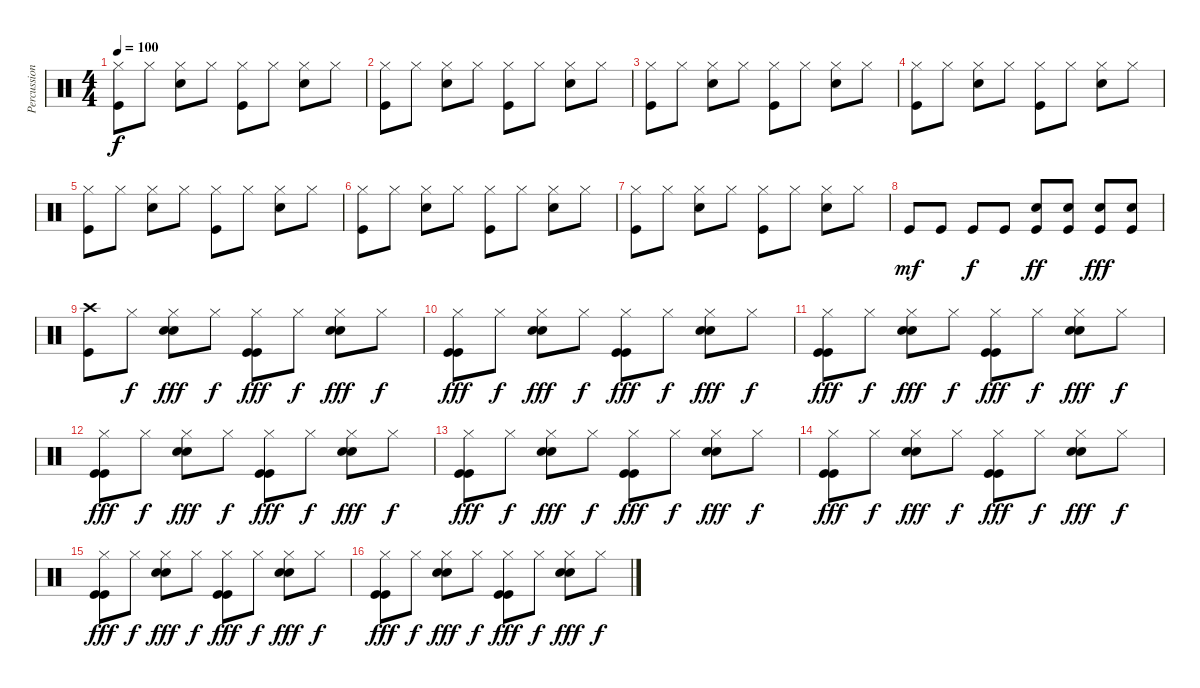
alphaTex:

\track ("Percussion" "Percussion") {instrument percussion}
\staff {score}
\articulation defaults
\ts (4 4)
\tempo 100
\clef neutral
\ks c
("Hi-Hat (closed)" "Kick (hit)").8{dy f} "Hi-Hat (closed)".8 ("Hi-Hat (closed)" "Snare (hit) 2").8 "Hi-Hat (closed)".8 ("Hi-Hat (closed)" "Kick (hit)").8 "Hi-Hat (closed)".8 ("Hi-Hat (closed)" "Snare (hit) 2").8 "Hi-Hat (closed)".8 |
("Hi-Hat (closed)" "Kick (hit)").8 "Hi-Hat (closed)".8 ("Hi-Hat (closed)" "Snare (hit) 2").8 "Hi-Hat (closed)".8 ("Hi-Hat (closed)" "Kick (hit)").8 "Hi-Hat (closed)".8 ("Hi-Hat (closed)" "Snare (hit) 2").8 "Hi-Hat (closed)".8 |
("Hi-Hat (closed)" "Kick (hit)").8 "Hi-Hat (closed)".8 ("Hi-Hat (closed)" "Snare (hit) 2").8 "Hi-Hat (closed)".8 ("Hi-Hat (closed)" "Kick (hit)").8 "Hi-Hat (closed)".8 ("Hi-Hat (closed)" "Snare (hit) 2").8 "Hi-Hat (closed)".8 |
("Hi-Hat (closed)" "Kick (hit)").8 "Hi-Hat (closed)".8 ("Hi-Hat (closed)" "Snare (hit) 2").8 "Hi-Hat (closed)".8 ("Hi-Hat (closed)" "Kick (hit)").8 "Hi-Hat (closed)".8 ("Hi-Hat (closed)" "Snare (hit) 2").8 "Hi-Hat (closed)".8 |
("Hi-Hat (closed)" "Kick (hit)").8 "Hi-Hat (closed)".8 ("Hi-Hat (closed)" "Snare (hit) 2").8 "Hi-Hat (closed)".8 ("Hi-Hat (closed)" "Kick (hit)").8 "Hi-Hat (closed)".8 ("Hi-Hat (closed)" "Snare (hit) 2").8 "Hi-Hat (closed)".8 |
("Hi-Hat (closed)" "Kick (hit)").8 "Hi-Hat (closed)".8 ("Hi-Hat (closed)" "Snare (hit) 2").8 "Hi-Hat (closed)".8 ("Hi-Hat (closed)" "Kick (hit)").8 "Hi-Hat (closed)".8 ("Hi-Hat (closed)" "Snare (hit) 2").8 "Hi-Hat (closed)".8 |
("Hi-Hat (closed)" "Kick (hit)").8 "Hi-Hat (closed)".8 ("Hi-Hat (closed)" "Snare (hit) 2").8 "Hi-Hat (closed)".8 ("Hi-Hat (closed)" "Kick (hit)").8 "Hi-Hat (closed)".8 ("Hi-Hat (closed)" "Snare (hit) 2").8 "Hi-Hat (closed)".8 |
"Kick (hit)".8{dy mf} "Kick (hit)".8 "Kick (hit)".8{dy f} "Kick (hit)".8 ("Snare (hit) 2" "Kick (hit)").8{dy ff} ("Snare (hit) 2" "Kick (hit)").8 ("Snare (hit) 2" "Kick (hit)").8{dy fff} ("Snare (hit) 2" "Kick (hit)").8 |
("Kick (hit)" "Crash high (hit)").8 "Hi-Hat (closed)".8{dy f} ("Hi-Hat (closed)" "Snare (hit) 2" "Snare (hit) 2").8{dy fff} "Hi-Hat (closed)".8{dy f} ("Hi-Hat (closed)" "Kick (hit)" "Kick (hit)").8{dy fff} "Hi-Hat (closed)".8{dy f} ("Hi-Hat (closed)" "Snare (hit) 2" "Snare (hit) 2").8{dy fff} "Hi-Hat (closed)".8{dy f} |
("Hi-Hat (closed)" "Kick (hit)" "Kick (hit)").8{dy fff} "Hi-Hat (closed)".8{dy f} ("Hi-Hat (closed)" "Snare (hit) 2" "Snare (hit) 2").8{dy fff} "Hi-Hat (closed)".8{dy f} ("Hi-Hat (closed)" "Kick (hit)" "Kick (hit)").8{dy fff} "Hi-Hat (closed)".8{dy f} ("Hi-Hat (closed)" "Snare (hit) 2" "Snare (hit) 2").8{dy fff} "Hi-Hat (closed)".8{dy f} |
("Hi-Hat (closed)" "Kick (hit)" "Kick (hit)").8{dy fff} "Hi-Hat (closed)".8{dy f} ("Hi-Hat (closed)" "Snare (hit) 2" "Snare (hit) 2").8{dy fff} "Hi-Hat (closed)".8{dy f} ("Hi-Hat (closed)" "Kick (hit)" "Kick (hit)").8{dy fff} "Hi-Hat (closed)".8{dy f} ("Hi-Hat (closed)" "Snare (hit) 2" "Snare (hit) 2").8{dy fff} "Hi-Hat (closed)".8{dy f} |
("Hi-Hat (closed)" "Kick (hit)" "Kick (hit)").8{dy fff} "Hi-Hat (closed)".8{dy f} ("Hi-Hat (closed)" "Snare (hit) 2" "Snare (hit) 2").8{dy fff} "Hi-Hat (closed)".8{dy f} ("Hi-Hat (closed)" "Kick (hit)" "Kick (hit)").8{dy fff} "Hi-Hat (closed)".8{dy f} ("Hi-Hat (closed)" "Snare (hit) 2" "Snare (hit) 2").8{dy fff} "Hi-Hat (closed)".8{dy f} |
("Hi-Hat (closed)" "Kick (hit)" "Kick (hit)").8{dy fff} "Hi-Hat (closed)".8{dy f} ("Hi-Hat (closed)" "Snare (hit) 2" "Snare (hit) 2").8{dy fff} "Hi-Hat (closed)".8{dy f} ("Hi-Hat (closed)" "Kick (hit)" "Kick (hit)").8{dy fff} "Hi-Hat (closed)".8{dy f} ("Hi-Hat (closed)" "Snare (hit) 2" "Snare (hit) 2").8{dy fff} "Hi-Hat (closed)".8{dy f} |
("Hi-Hat (closed)" "Kick (hit)" "Kick (hit)").8{dy fff} "Hi-Hat (closed)".8{dy f} ("Hi-Hat (closed)" "Snare (hit) 2" "Snare (hit) 2").8{dy fff} "Hi-Hat (closed)".8{dy f} ("Hi-Hat (closed)" "Kick (hit)" "Kick (hit)").8{dy fff} "Hi-Hat (closed)".8{dy f} ("Hi-Hat (closed)" "Snare (hit) 2" "Snare (hit) 2").8{dy fff} "Hi-Hat (closed)".8{dy f} |
("Hi-Hat (closed)" "Kick (hit)" "Kick (hit)").8{dy fff} "Hi-Hat (closed)".8{dy f} ("Hi-Hat (closed)" "Snare (hit) 2" "Snare (hit) 2").8{dy fff} "Hi-Hat (closed)".8{dy f} ("Hi-Hat (closed)" "Kick (hit)" "Kick (hit)").8{dy fff} "Hi-Hat (closed)".8{dy f} ("Hi-Hat (closed)" "Snare (hit) 2" "Snare (hit) 2").8{dy fff} "Hi-Hat (closed)".8{dy f} |
("Hi-Hat (closed)" "Kick (hit)" "Kick (hit)").8{dy fff} "Hi-Hat (closed)".8{dy f} ("Hi-Hat (closed)" "Snare (hit) 2" "Snare (hit) 2").8{dy fff} "Hi-Hat (closed)".8{dy f} ("Hi-Hat (closed)" "Kick (hit)" "Kick (hit)").8{dy fff} "Hi-Hat (closed)".8{dy f} ("Hi-Hat (closed)" "Snare (hit) 2" "Snare (hit) 2").8{dy fff} "Hi-Hat (closed)".8{dy f}
